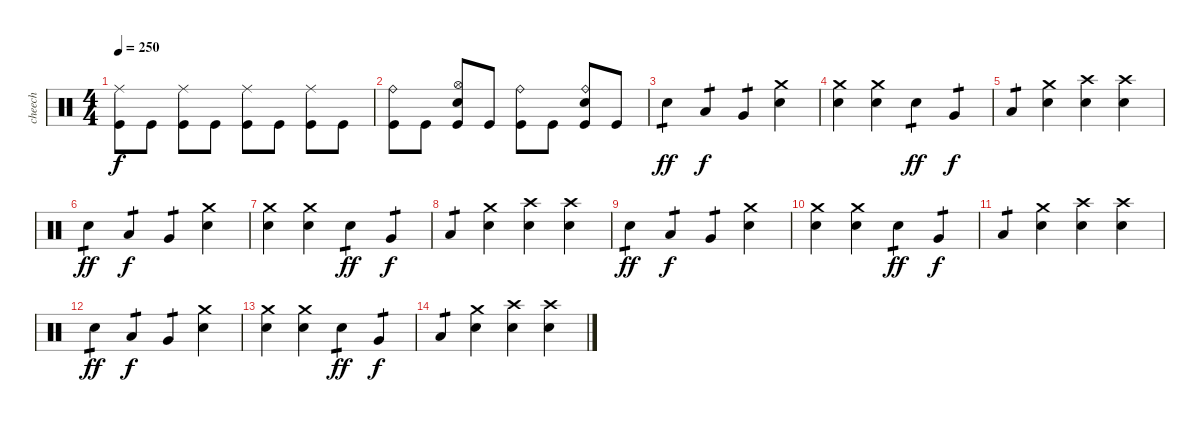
\track ("cheech" "cheech") {instrument percussion}
\staff {score}
\articulation defaults
\ts (4 4)
\tempo 250
\clef neutral
\ks c
("Ride (middle)" "Kick (hit)").8{dy f} "Kick (hit)".8 ("Ride (middle)" "Kick (hit)").8 "Kick (hit)".8 ("Ride (middle)" "Kick (hit)").8 "Kick (hit)".8 ("Ride (middle)" "Kick (hit)").8 "Kick (hit)".8 |
("Ride (bell)" "Kick (hit)").8 "Kick (hit)".8 ("Hi-Hat (open)" "Electric Snare (hit)" "Kick (hit)").8 "Kick (hit)".8 ("Ride (bell)" "Kick (hit)").8 "Kick (hit)".8 ("Ride (bell)" "Electric Snare (hit)" "Kick (hit)").8 "Kick (hit)".8 |
"Electric Snare (hit)".4{tp 1 dy ff} "Low Tom (hit)".4{tp 1 dy f} "Very Low Tom (hit)".4{tp 1} ("Crash medium (hit)" "Electric Snare (hit)").4 |
("Crash medium (hit)" "Electric Snare (hit)").4 ("Crash medium (hit)" "Electric Snare (hit)").4 "Electric Snare (hit)".4{tp 1 dy ff} "Very Low Tom (hit)".4{tp 1 dy f} |
"Low Floor Tom (hit)".4{tp 1} ("Crash medium (hit)" "Electric Snare (hit)").4 ("Crash high (hit)" "Electric Snare (hit)").4 ("Crash high (hit)" "Electric Snare (hit)").4 |
"Electric Snare (hit)".4{tp 1 dy ff} "Low Tom (hit)".4{tp 1 dy f} "Very Low Tom (hit)".4{tp 1} ("Crash medium (hit)" "Electric Snare (hit)").4 |
("Crash medium (hit)" "Electric Snare (hit)").4 ("Crash medium (hit)" "Electric Snare (hit)").4 "Electric Snare (hit)".4{tp 1 dy ff} "Very Low Tom (hit)".4{tp 1 dy f} |
"Low Floor Tom (hit)".4{tp 1} ("Crash medium (hit)" "Electric Snare (hit)").4 ("Crash high (hit)" "Electric Snare (hit)").4 ("Crash high (hit)" "Electric Snare (hit)").4 |
"Electric Snare (hit)".4{tp 1 dy ff} "Low Tom (hit)".4{tp 1 dy f} "Very Low Tom (hit)".4{tp 1} ("Crash medium (hit)" "Electric Snare (hit)").4 |
("Crash medium (hit)" "Electric Snare (hit)").4 ("Crash medium (hit)" "Electric Snare (hit)").4 "Electric Snare (hit)".4{tp 1 dy ff} "Very Low Tom (hit)".4{tp 1 dy f} |
"Low Floor Tom (hit)".4{tp 1} ("Crash medium (hit)" "Electric Snare (hit)").4 ("Crash high (hit)" "Electric Snare (hit)").4 ("Crash high (hit)" "Electric Snare (hit)").4 |
"Electric Snare (hit)".4{tp 1 dy ff} "Low Tom (hit)".4{tp 1 dy f} "Very Low Tom (hit)".4{tp 1} ("Crash medium (hit)" "Electric Snare (hit)").4 |
("Crash medium (hit)" "Electric Snare (hit)").4 ("Crash medium (hit)" "Electric Snare (hit)").4 "Electric Snare (hit)".4{tp 1 dy ff} "Very Low Tom (hit)".4{tp 1 dy f} |
"Low Floor Tom (hit)".4{tp 1} ("Crash medium (hit)" "Electric Snare (hit)").4 ("Crash high (hit)" "Electric Snare (hit)").4 ("Crash high (hit)" "Electric Snare (hit)").4
